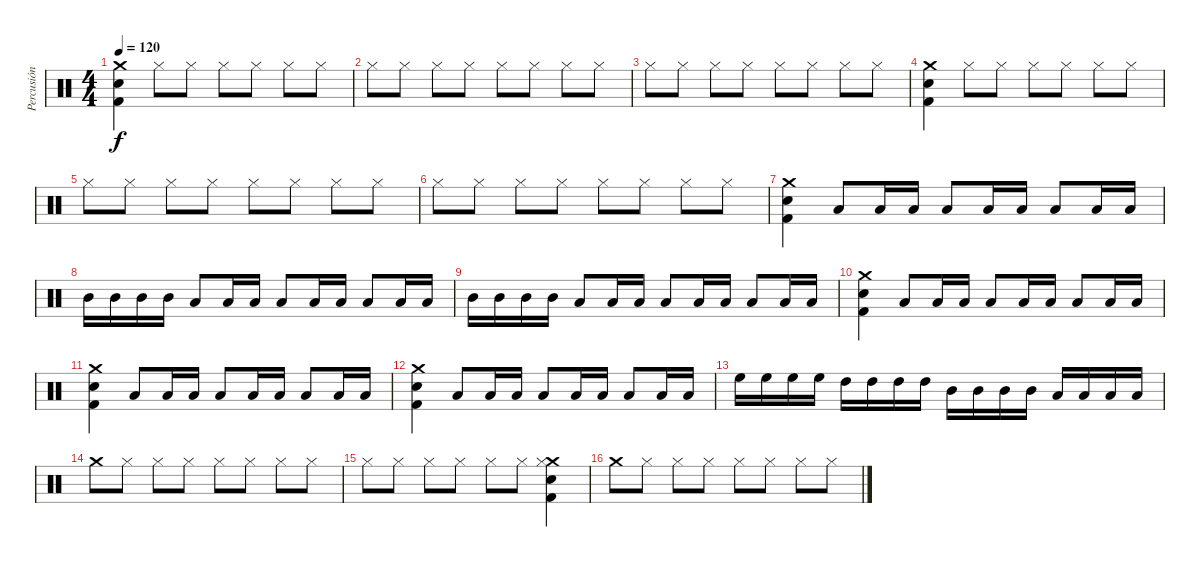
\track ("Percusión" "Percusión") {instrument percussion}
\staff {score}
\articulation defaults
\ts (4 4)
\tempo 120
\clef neutral
\ks c
("Crash medium (hit)" "Kick (hit) 2" "Snare (hit) 2").4{dy f} "Hi-Hat (closed)".8 "Hi-Hat (closed)".8 "Hi-Hat (closed)".8 "Hi-Hat (closed)".8 "Hi-Hat (closed)".8 "Hi-Hat (closed)".8 |
"Hi-Hat (closed)".8 "Hi-Hat (closed)".8 "Hi-Hat (closed)".8 "Hi-Hat (closed)".8 "Hi-Hat (closed)".8 "Hi-Hat (closed)".8 "Hi-Hat (closed)".8 "Hi-Hat (closed)".8 |
"Hi-Hat (closed)".8 "Hi-Hat (closed)".8 "Hi-Hat (closed)".8 "Hi-Hat (closed)".8 "Hi-Hat (closed)".8 "Hi-Hat (closed)".8 "Hi-Hat (closed)".8 "Hi-Hat (closed)".8 |
("Crash medium (hit)" "Kick (hit) 2" "Snare (hit) 2").4 "Hi-Hat (closed)".8 "Hi-Hat (closed)".8 "Hi-Hat (closed)".8 "Hi-Hat (closed)".8 "Hi-Hat (closed)".8 "Hi-Hat (closed)".8 |
"Hi-Hat (closed)".8 "Hi-Hat (closed)".8 "Hi-Hat (closed)".8 "Hi-Hat (closed)".8 "Hi-Hat (closed)".8 "Hi-Hat (closed)".8 "Hi-Hat (closed)".8 "Hi-Hat (closed)".8 |
"Hi-Hat (closed)".8 "Hi-Hat (closed)".8 "Hi-Hat (closed)".8 "Hi-Hat (closed)".8 "Hi-Hat (closed)".8 "Hi-Hat (closed)".8 "Hi-Hat (closed)".8 "Hi-Hat (closed)".8 |
("Crash medium (hit)" "Kick (hit) 2" "Snare (hit) 2").4 "Low Tom (hit)".8 "Low Tom (hit)".16 "Low Tom (hit)".16 "Low Tom (hit)".8 "Low Tom (hit)".16 "Low Tom (hit)".16 "Low Tom (hit)".8 "Low Tom (hit)".16 "Low Tom (hit)".16 |
"Mid Tom (hit)".16 "Mid Tom (hit)".16 "Mid Tom (hit)".16 "Mid Tom (hit)".16 "Low Tom (hit)".8 "Low Tom (hit)".16 "Low Tom (hit)".16 "Low Tom (hit)".8 "Low Tom (hit)".16 "Low Tom (hit)".16 "Low Tom (hit)".8 "Low Tom (hit)".16 "Low Tom (hit)".16 |
"Mid Tom (hit)".16 "Mid Tom (hit)".16 "Mid Tom (hit)".16 "Mid Tom (hit)".16 "Low Tom (hit)".8 "Low Tom (hit)".16 "Low Tom (hit)".16 "Low Tom (hit)".8 "Low Tom (hit)".16 "Low Tom (hit)".16 "Low Tom (hit)".8 "Low Tom (hit)".16 "Low Tom (hit)".16 |
("Crash medium (hit)" "Kick (hit) 2" "Snare (hit) 2").4 "Low Tom (hit)".8 "Low Tom (hit)".16 "Low Tom (hit)".16 "Low Tom (hit)".8 "Low Tom (hit)".16 "Low Tom (hit)".16 "Low Tom (hit)".8 "Low Tom (hit)".16 "Low Tom (hit)".16 |
("Crash medium (hit)" "Kick (hit) 2" "Snare (hit) 2").4 "Low Tom (hit)".8 "Low Tom (hit)".16 "Low Tom (hit)".16 "Low Tom (hit)".8 "Low Tom (hit)".16 "Low Tom (hit)".16 "Low Tom (hit)".8 "Low Tom (hit)".16 "Low Tom (hit)".16 |
("Crash medium (hit)" "Kick (hit) 2" "Snare (hit) 2").4 "Low Tom (hit)".8 "Low Tom (hit)".16 "Low Tom (hit)".16 "Low Tom (hit)".8 "Low Tom (hit)".16 "Low Tom (hit)".16 "Low Tom (hit)".8 "Low Tom (hit)".16 "Low Tom (hit)".16 |
"High Floor Tom (hit)".16 "High Floor Tom (hit)".16 "High Floor Tom (hit)".16 "High Floor Tom (hit)".16 "High Tom (hit)".16 "High Tom (hit)".16 "High Tom (hit)".16 "High Tom (hit)".16 "Mid Tom (hit)".16 "Mid Tom (hit)".16 "Mid Tom (hit)".16 "Mid Tom (hit)".16 "Low Tom (hit)".16 "Low Tom (hit)".16 "Low Tom (hit)".16 "Low Tom (hit)".16 |
"Crash medium (hit)".8 "Hi-Hat (closed)".8 "Hi-Hat (closed)".8 "Hi-Hat (closed)".8 "Hi-Hat (closed)".8 "Hi-Hat (closed)".8 "Hi-Hat (closed)".8 "Hi-Hat (closed)".8 |
"Hi-Hat (closed)".8 "Hi-Hat (closed)".8 "Hi-Hat (closed)".8 "Hi-Hat (closed)".8 "Hi-Hat (closed)".8 "Hi-Hat (closed)".8 ("Crash medium (hit)" "Hi-Hat (closed)" "Kick (hit) 2" "Snare (hit) 2").4 |
"Crash medium (hit)".8 "Hi-Hat (closed)".8 "Hi-Hat (closed)".8 "Hi-Hat (closed)".8 "Hi-Hat (closed)".8 "Hi-Hat (closed)".8 "Hi-Hat (closed)".8 "Hi-Hat (closed)".8
